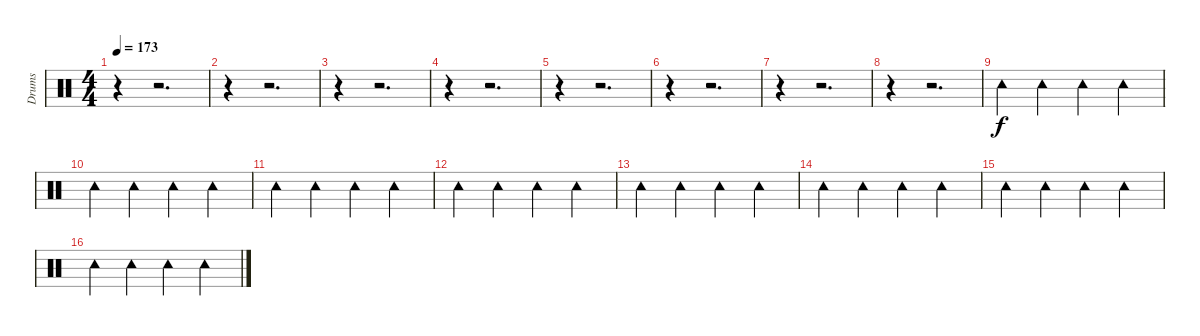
\track ("Drums" "Drums") {instrument percussion}
\staff {score}
\articulation defaults
\ts (4 4)
\tempo 173
\clef neutral
\ks c
r.4{dy f} r.2{d} |
r.4 r.2{d} |
r.4 r.2{d} |
r.4 r.2{d} |
r.4 r.2{d} |
r.4 r.2{d} |
r.4 r.2{d} |
r.4 r.2{d} |
"Tambourine (hit)".4 "Tambourine (hit)".4 "Tambourine (hit)".4 "Tambourine (hit)".4 |
"Tambourine (hit)".4 "Tambourine (hit)".4 "Tambourine (hit)".4 "Tambourine (hit)".4 |
"Tambourine (hit)".4 "Tambourine (hit)".4 "Tambourine (hit)".4 "Tambourine (hit)".4 |
"Tambourine (hit)".4 "Tambourine (hit)".4 "Tambourine (hit)".4 "Tambourine (hit)".4 |
"Tambourine (hit)".4 "Tambourine (hit)".4 "Tambourine (hit)".4 "Tambourine (hit)".4 |
"Tambourine (hit)".4 "Tambourine (hit)".4 "Tambourine (hit)".4 "Tambourine (hit)".4 |
"Tambourine (hit)".4 "Tambourine (hit)".4 "Tambourine (hit)".4 "Tambourine (hit)".4 |
"Tambourine (hit)".4 "Tambourine (hit)".4 "Tambourine (hit)".4 "Tambourine (hit)".4
